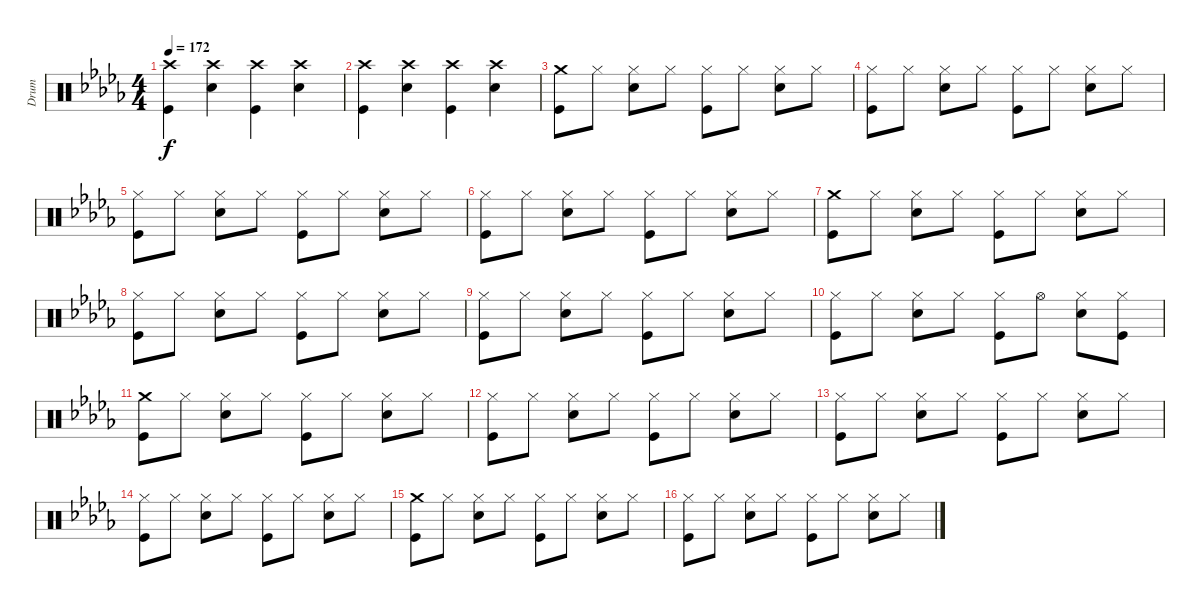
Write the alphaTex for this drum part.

\track ("Drum" "Drum") {instrument percussion}
\staff {score}
\articulation defaults
\ts (4 4)
\tempo 172
\clef neutral
\ks db
("Crash high (hit)" "Kick (hit)").4{dy f} ("Crash high (hit)" "Snare (hit) 2").4 ("Crash high (hit)" "Kick (hit)").4 ("Crash high (hit)" "Snare (hit) 2").4 |
("Crash high (hit)" "Kick (hit)").4 ("Crash high (hit)" "Snare (hit) 2").4 ("Crash high (hit)" "Kick (hit)").4 ("Crash high (hit)" "Snare (hit) 2").4 |
("Crash medium (hit)" "Kick (hit)").8 "Hi-Hat (closed)".8 ("Hi-Hat (closed)" "Snare (hit) 2").8 "Hi-Hat (closed)".8 ("Hi-Hat (closed)" "Kick (hit)").8 "Hi-Hat (closed)".8 ("Hi-Hat (closed)" "Snare (hit) 2").8 "Hi-Hat (closed)".8 |
("Hi-Hat (closed)" "Kick (hit)").8 "Hi-Hat (closed)".8 ("Hi-Hat (closed)" "Snare (hit) 2").8 "Hi-Hat (closed)".8 ("Hi-Hat (closed)" "Kick (hit)").8 "Hi-Hat (closed)".8 ("Hi-Hat (closed)" "Snare (hit) 2").8 "Hi-Hat (closed)".8 |
("Hi-Hat (closed)" "Kick (hit)").8 "Hi-Hat (closed)".8 ("Hi-Hat (closed)" "Snare (hit) 2").8 "Hi-Hat (closed)".8 ("Hi-Hat (closed)" "Kick (hit)").8 "Hi-Hat (closed)".8 ("Hi-Hat (closed)" "Snare (hit) 2").8 "Hi-Hat (closed)".8 |
("Hi-Hat (closed)" "Kick (hit)").8 "Hi-Hat (closed)".8 ("Hi-Hat (closed)" "Snare (hit) 2").8 "Hi-Hat (closed)".8 ("Hi-Hat (closed)" "Kick (hit)").8 "Hi-Hat (closed)".8 ("Hi-Hat (closed)" "Snare (hit) 2").8 "Hi-Hat (closed)".8 |
("Crash medium (hit)" "Kick (hit)").8 "Hi-Hat (closed)".8 ("Hi-Hat (closed)" "Snare (hit) 2").8 "Hi-Hat (closed)".8 ("Hi-Hat (closed)" "Kick (hit)").8 "Hi-Hat (closed)".8 ("Hi-Hat (closed)" "Snare (hit) 2").8 "Hi-Hat (closed)".8 |
("Hi-Hat (closed)" "Kick (hit)").8 "Hi-Hat (closed)".8 ("Hi-Hat (closed)" "Snare (hit) 2").8 "Hi-Hat (closed)".8 ("Hi-Hat (closed)" "Kick (hit)").8 "Hi-Hat (closed)".8 ("Hi-Hat (closed)" "Snare (hit) 2").8 "Hi-Hat (closed)".8 |
("Hi-Hat (closed)" "Kick (hit)").8 "Hi-Hat (closed)".8 ("Hi-Hat (closed)" "Snare (hit) 2").8 "Hi-Hat (closed)".8 ("Hi-Hat (closed)" "Kick (hit)").8 "Hi-Hat (closed)".8 ("Hi-Hat (closed)" "Snare (hit) 2").8 "Hi-Hat (closed)".8 |
("Hi-Hat (closed)" "Kick (hit)").8 "Hi-Hat (closed)".8 ("Hi-Hat (closed)" "Snare (hit) 2").8 "Hi-Hat (closed)".8 ("Hi-Hat (closed)" "Kick (hit)").8 "Hi-Hat (open)".8 ("Hi-Hat (closed)" "Snare (hit) 2").8 ("Hi-Hat (closed)" "Kick (hit)").8 |
("Crash medium (hit)" "Kick (hit)").8 "Hi-Hat (closed)".8 ("Hi-Hat (closed)" "Snare (hit) 2").8 "Hi-Hat (closed)".8 ("Hi-Hat (closed)" "Kick (hit)").8 "Hi-Hat (closed)".8 ("Hi-Hat (closed)" "Snare (hit) 2").8 "Hi-Hat (closed)".8 |
("Hi-Hat (closed)" "Kick (hit)").8 "Hi-Hat (closed)".8 ("Hi-Hat (closed)" "Snare (hit) 2").8 "Hi-Hat (closed)".8 ("Hi-Hat (closed)" "Kick (hit)").8 "Hi-Hat (closed)".8 ("Hi-Hat (closed)" "Snare (hit) 2").8 "Hi-Hat (closed)".8 |
("Hi-Hat (closed)" "Kick (hit)").8 "Hi-Hat (closed)".8 ("Hi-Hat (closed)" "Snare (hit) 2").8 "Hi-Hat (closed)".8 ("Hi-Hat (closed)" "Kick (hit)").8 "Hi-Hat (closed)".8 ("Hi-Hat (closed)" "Snare (hit) 2").8 "Hi-Hat (closed)".8 |
("Hi-Hat (closed)" "Kick (hit)").8 "Hi-Hat (closed)".8 ("Hi-Hat (closed)" "Snare (hit) 2").8 "Hi-Hat (closed)".8 ("Hi-Hat (closed)" "Kick (hit)").8 "Hi-Hat (closed)".8 ("Hi-Hat (closed)" "Snare (hit) 2").8 "Hi-Hat (closed)".8 |
("Crash medium (hit)" "Kick (hit)").8 "Hi-Hat (closed)".8 ("Hi-Hat (closed)" "Snare (hit) 2").8 "Hi-Hat (closed)".8 ("Hi-Hat (closed)" "Kick (hit)").8 "Hi-Hat (closed)".8 ("Hi-Hat (closed)" "Snare (hit) 2").8 "Hi-Hat (closed)".8 |
("Hi-Hat (closed)" "Kick (hit)").8 "Hi-Hat (closed)".8 ("Hi-Hat (closed)" "Snare (hit) 2").8 "Hi-Hat (closed)".8 ("Hi-Hat (closed)" "Kick (hit)").8 "Hi-Hat (closed)".8 ("Hi-Hat (closed)" "Snare (hit) 2").8 "Hi-Hat (closed)".8
